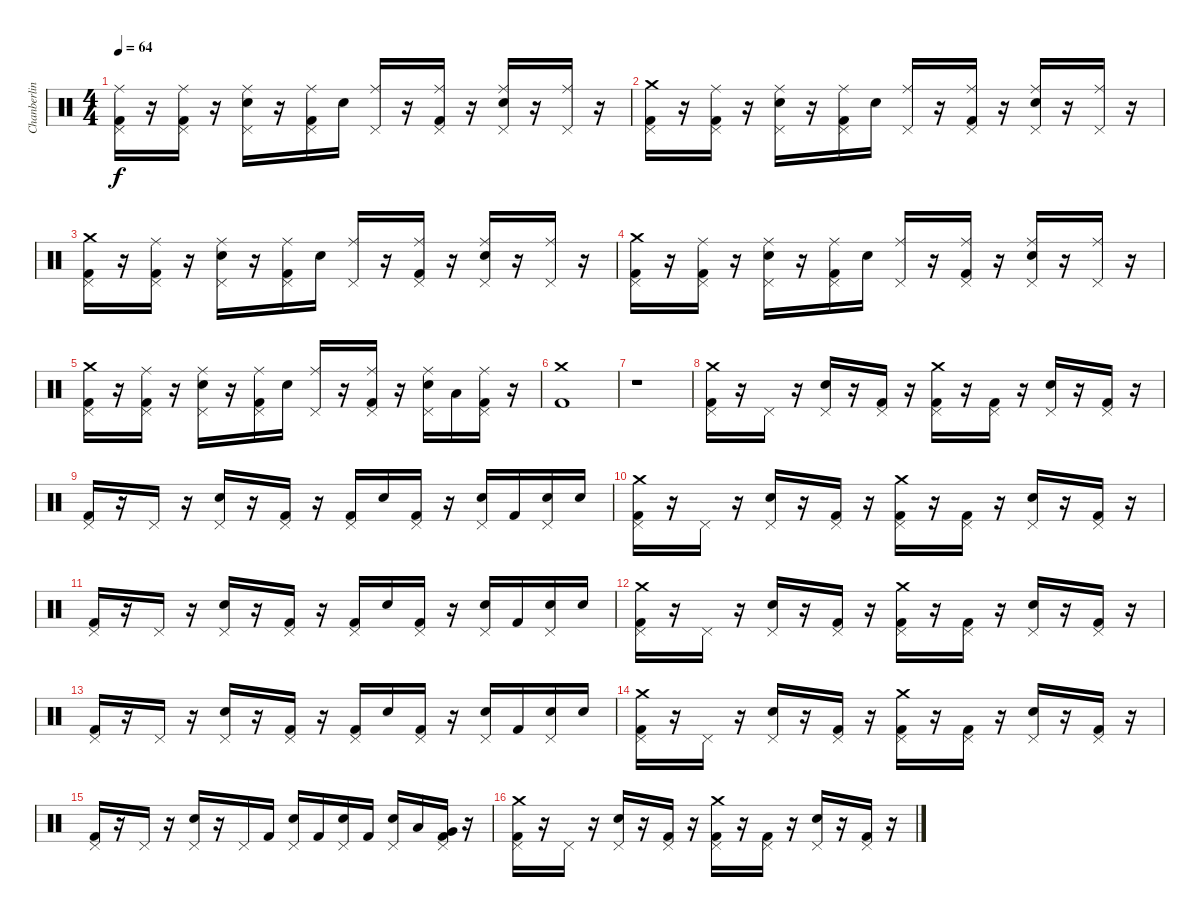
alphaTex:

\track ("Chanberlin" "Chanberlin") {instrument percussion}
\staff {score}
\articulation defaults
\ts (4 4)
\tempo 64
\clef neutral
\ks c
("Ride (middle)" "Pedal Hi-Hat (hit)" "Kick (hit) 2").16{dy f} r.16 ("Ride (middle)" "Pedal Hi-Hat (hit)" "Kick (hit) 2").16 r.16 ("Ride (middle)" "Pedal Hi-Hat (hit)" "Snare (hit) 2").16 r.16 ("Ride (middle)" "Pedal Hi-Hat (hit)" "Kick (hit) 2").16 "Snare (hit) 2".16 ("Ride (middle)" "Pedal Hi-Hat (hit)").16 r.16 ("Ride (middle)" "Pedal Hi-Hat (hit)" "Kick (hit) 2").16 r.16 ("Ride (middle)" "Pedal Hi-Hat (hit)" "Snare (hit) 2").16 r.16 ("Ride (middle)" "Pedal Hi-Hat (hit)").16 r.16 |
("Crash medium (hit)" "Pedal Hi-Hat (hit)" "Kick (hit) 2").16 r.16 ("Ride (middle)" "Pedal Hi-Hat (hit)" "Kick (hit) 2").16 r.16 ("Ride (middle)" "Pedal Hi-Hat (hit)" "Snare (hit) 2").16 r.16 ("Ride (middle)" "Pedal Hi-Hat (hit)" "Kick (hit) 2").16 "Snare (hit) 2".16 ("Ride (middle)" "Pedal Hi-Hat (hit)").16 r.16 ("Ride (middle)" "Pedal Hi-Hat (hit)" "Kick (hit) 2").16 r.16 ("Ride (middle)" "Pedal Hi-Hat (hit)" "Snare (hit) 2").16 r.16 ("Ride (middle)" "Pedal Hi-Hat (hit)").16 r.16 |
("Crash medium (hit)" "Pedal Hi-Hat (hit)" "Kick (hit) 2").16 r.16 ("Ride (middle)" "Pedal Hi-Hat (hit)" "Kick (hit) 2").16 r.16 ("Ride (middle)" "Pedal Hi-Hat (hit)" "Snare (hit) 2").16 r.16 ("Ride (middle)" "Pedal Hi-Hat (hit)" "Kick (hit) 2").16 "Snare (hit) 2".16 ("Ride (middle)" "Pedal Hi-Hat (hit)").16 r.16 ("Ride (middle)" "Pedal Hi-Hat (hit)" "Kick (hit) 2").16 r.16 ("Ride (middle)" "Pedal Hi-Hat (hit)" "Snare (hit) 2").16 r.16 ("Ride (middle)" "Pedal Hi-Hat (hit)").16 r.16 |
("Crash medium (hit)" "Pedal Hi-Hat (hit)" "Kick (hit) 2").16 r.16 ("Ride (middle)" "Pedal Hi-Hat (hit)" "Kick (hit) 2").16 r.16 ("Ride (middle)" "Pedal Hi-Hat (hit)" "Snare (hit) 2").16 r.16 ("Ride (middle)" "Pedal Hi-Hat (hit)" "Kick (hit) 2").16 "Snare (hit) 2".16 ("Ride (middle)" "Pedal Hi-Hat (hit)").16 r.16 ("Ride (middle)" "Pedal Hi-Hat (hit)" "Kick (hit) 2").16 r.16 ("Ride (middle)" "Pedal Hi-Hat (hit)" "Snare (hit) 2").16 r.16 ("Ride (middle)" "Pedal Hi-Hat (hit)").16 r.16 |
("Crash medium (hit)" "Pedal Hi-Hat (hit)" "Kick (hit) 2").16 r.16 ("Ride (middle)" "Pedal Hi-Hat (hit)" "Kick (hit) 2").16 r.16 ("Ride (middle)" "Pedal Hi-Hat (hit)" "Snare (hit) 2").16 r.16 ("Ride (middle)" "Pedal Hi-Hat (hit)" "Kick (hit) 2").16 "Snare (hit) 2".16 ("Ride (middle)" "Pedal Hi-Hat (hit)").16 r.16 ("Ride (middle)" "Pedal Hi-Hat (hit)" "Kick (hit) 2").16 r.16 ("Ride (middle)" "Pedal Hi-Hat (hit)" "Snare (hit) 2").16 "Low Tom (hit)".16 ("Ride (middle)" "Pedal Hi-Hat (hit)" "Kick (hit) 2").16 r.16 |
("Crash medium (hit)" "Kick (hit) 2").1 |
r.1 |
("Crash medium (hit)" "Pedal Hi-Hat (hit)" "Kick (hit) 2").16{volume 16} r.16 "Pedal Hi-Hat (hit)".16 r.16 ("Pedal Hi-Hat (hit)" "Snare (hit) 2").16 r.16 ("Pedal Hi-Hat (hit)" "Kick (hit) 2").16 r.16 ("Crash medium (hit)" "Pedal Hi-Hat (hit)" "Kick (hit) 2").16 r.16 ("Pedal Hi-Hat (hit)" "Kick (hit) 2").16 r.16 ("Pedal Hi-Hat (hit)" "Snare (hit) 2").16 r.16 ("Pedal Hi-Hat (hit)" "Kick (hit) 2").16 r.16 |
("Pedal Hi-Hat (hit)" "Kick (hit) 2").16 r.16 "Pedal Hi-Hat (hit)".16 r.16 ("Pedal Hi-Hat (hit)" "Snare (hit) 2").16 r.16 ("Pedal Hi-Hat (hit)" "Kick (hit) 2").16 r.16 ("Pedal Hi-Hat (hit)" "Kick (hit) 2").16 "Snare (hit) 2".16 ("Pedal Hi-Hat (hit)" "Kick (hit) 2").16 r.16 ("Pedal Hi-Hat (hit)" "Snare (hit) 2").16 "Kick (hit) 2".16 ("Pedal Hi-Hat (hit)" "Snare (hit) 2").16 "Snare (hit) 2".16 |
("Crash medium (hit)" "Pedal Hi-Hat (hit)" "Kick (hit) 2").16 r.16 "Pedal Hi-Hat (hit)".16 r.16 ("Pedal Hi-Hat (hit)" "Snare (hit) 2").16 r.16 ("Pedal Hi-Hat (hit)" "Kick (hit) 2").16 r.16 ("Crash medium (hit)" "Pedal Hi-Hat (hit)" "Kick (hit) 2").16 r.16 ("Pedal Hi-Hat (hit)" "Kick (hit) 2").16 r.16 ("Pedal Hi-Hat (hit)" "Snare (hit) 2").16 r.16 ("Pedal Hi-Hat (hit)" "Kick (hit) 2").16 r.16 |
("Pedal Hi-Hat (hit)" "Kick (hit) 2").16 r.16 "Pedal Hi-Hat (hit)".16 r.16 ("Pedal Hi-Hat (hit)" "Snare (hit) 2").16 r.16 ("Pedal Hi-Hat (hit)" "Kick (hit) 2").16 r.16 ("Pedal Hi-Hat (hit)" "Kick (hit) 2").16 "Snare (hit) 2".16 ("Pedal Hi-Hat (hit)" "Kick (hit) 2").16 r.16 ("Pedal Hi-Hat (hit)" "Snare (hit) 2").16 "Kick (hit) 2".16 ("Pedal Hi-Hat (hit)" "Snare (hit) 2").16 "Snare (hit) 2".16 |
("Crash medium (hit)" "Pedal Hi-Hat (hit)" "Kick (hit) 2").16 r.16 "Pedal Hi-Hat (hit)".16 r.16 ("Pedal Hi-Hat (hit)" "Snare (hit) 2").16 r.16 ("Pedal Hi-Hat (hit)" "Kick (hit) 2").16 r.16 ("Crash medium (hit)" "Pedal Hi-Hat (hit)" "Kick (hit) 2").16 r.16 ("Pedal Hi-Hat (hit)" "Kick (hit) 2").16 r.16 ("Pedal Hi-Hat (hit)" "Snare (hit) 2").16 r.16 ("Pedal Hi-Hat (hit)" "Kick (hit) 2").16 r.16 |
("Pedal Hi-Hat (hit)" "Kick (hit) 2").16 r.16 "Pedal Hi-Hat (hit)".16 r.16 ("Pedal Hi-Hat (hit)" "Snare (hit) 2").16 r.16 ("Pedal Hi-Hat (hit)" "Kick (hit) 2").16 r.16 ("Pedal Hi-Hat (hit)" "Kick (hit) 2").16 "Snare (hit) 2".16 ("Pedal Hi-Hat (hit)" "Kick (hit) 2").16 r.16 ("Pedal Hi-Hat (hit)" "Snare (hit) 2").16 "Kick (hit) 2".16 ("Pedal Hi-Hat (hit)" "Snare (hit) 2").16 "Snare (hit) 2".16 |
("Crash medium (hit)" "Pedal Hi-Hat (hit)" "Kick (hit) 2").16 r.16 "Pedal Hi-Hat (hit)".16 r.16 ("Pedal Hi-Hat (hit)" "Snare (hit) 2").16 r.16 ("Pedal Hi-Hat (hit)" "Kick (hit) 2").16 r.16 ("Crash medium (hit)" "Pedal Hi-Hat (hit)" "Kick (hit) 2").16 r.16 ("Pedal Hi-Hat (hit)" "Kick (hit) 2").16 r.16 ("Pedal Hi-Hat (hit)" "Snare (hit) 2").16 r.16 ("Pedal Hi-Hat (hit)" "Kick (hit) 2").16 r.16 |
("Pedal Hi-Hat (hit)" "Kick (hit) 2").16 r.16 "Pedal Hi-Hat (hit)".16 r.16 ("Pedal Hi-Hat (hit)" "Snare (hit) 2").16 r.16 "Pedal Hi-Hat (hit)".16 "Kick (hit) 2".16 ("Pedal Hi-Hat (hit)" "Snare (hit) 2").16 "Kick (hit) 2".16 ("Pedal Hi-Hat (hit)" "Snare (hit) 2").16 "Kick (hit) 2".16 ("Pedal Hi-Hat (hit)" "Snare (hit) 2").16 "Low Tom (hit)".16 ("Pedal Hi-Hat (hit)" "Very Low Tom (hit)" "Kick (hit) 2").16 r.16 |
("Crash medium (hit)" "Pedal Hi-Hat (hit)" "Kick (hit) 2").16 r.16 "Pedal Hi-Hat (hit)".16 r.16 ("Pedal Hi-Hat (hit)" "Snare (hit) 2").16 r.16 ("Pedal Hi-Hat (hit)" "Kick (hit) 2").16 r.16 ("Crash medium (hit)" "Pedal Hi-Hat (hit)" "Kick (hit) 2").16 r.16 ("Pedal Hi-Hat (hit)" "Kick (hit) 2").16 r.16 ("Pedal Hi-Hat (hit)" "Snare (hit) 2").16 r.16 ("Pedal Hi-Hat (hit)" "Kick (hit) 2").16 r.16
